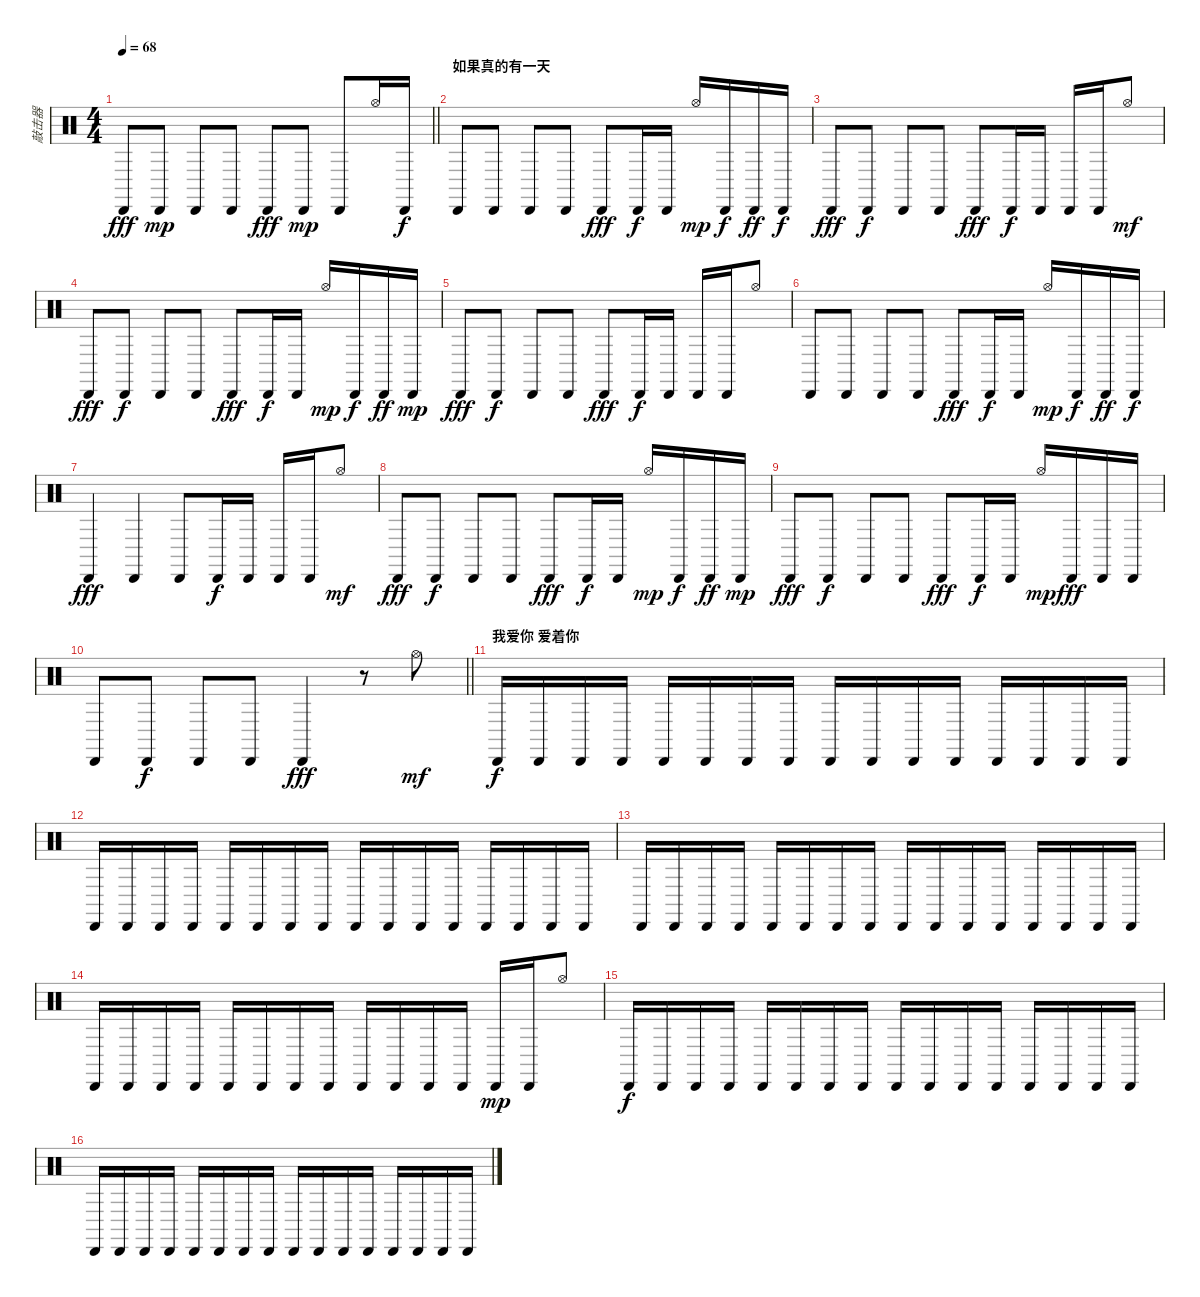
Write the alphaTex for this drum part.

\track ("敲击器" "敲击器") {instrument percussion}
\staff {score}
\articulation defaults
\ts (4 4)
\section ("" "")
\tempo 68
\clef neutral
\barLineRight lightlight
\ks c "Cabasa (hit)".8{dy fff} "Cabasa (hit)".8{dy mp} "Cabasa (hit)".8 "Cabasa (hit)".8 "Cabasa (hit)".8{dy fff} "Cabasa (hit)".8{dy mp} "Cabasa (hit)".8 "Hi-Hat (open)".16 "Cabasa (hit)".16{dy f}
|
\section ("" "如果真的有一天")
"Cabasa (hit)".8 "Cabasa (hit)".8 "Cabasa (hit)".8 "Cabasa (hit)".8 "Cabasa (hit)".8{dy fff} "Cabasa (hit)".16{dy f} "Cabasa (hit)".16 "Hi-Hat (open)".16{dy mp} "Cabasa (hit)".16{dy f} "Cabasa (hit)".16{dy ff} "Cabasa (hit)".16{dy f} |
"Cabasa (hit)".8{dy fff} "Cabasa (hit)".8{dy f} "Cabasa (hit)".8 "Cabasa (hit)".8 "Cabasa (hit)".8{dy fff} "Cabasa (hit)".16{dy f} "Cabasa (hit)".16 "Cabasa (hit)".16 "Cabasa (hit)".16 "Hi-Hat (open)".8{dy mf} |
"Cabasa (hit)".8{dy fff} "Cabasa (hit)".8{dy f} "Cabasa (hit)".8 "Cabasa (hit)".8 "Cabasa (hit)".8{dy fff} "Cabasa (hit)".16{dy f} "Cabasa (hit)".16 "Hi-Hat (open)".16{dy mp} "Cabasa (hit)".16{dy f} "Cabasa (hit)".16{dy ff} "Cabasa (hit)".16{dy mp} |
"Cabasa (hit)".8{dy fff} "Cabasa (hit)".8{dy f} "Cabasa (hit)".8 "Cabasa (hit)".8 "Cabasa (hit)".8{dy fff} "Cabasa (hit)".16{dy f} "Cabasa (hit)".16 "Cabasa (hit)".16 "Cabasa (hit)".16 "Hi-Hat (open)".8 |
"Cabasa (hit)".8 "Cabasa (hit)".8 "Cabasa (hit)".8 "Cabasa (hit)".8 "Cabasa (hit)".8{dy fff} "Cabasa (hit)".16{dy f} "Cabasa (hit)".16 "Hi-Hat (open)".16{dy mp} "Cabasa (hit)".16{dy f} "Cabasa (hit)".16{dy ff} "Cabasa (hit)".16{dy f} |
"Cabasa (hit)".4{dy fff} "Cabasa (hit)".4 "Cabasa (hit)".8 "Cabasa (hit)".16{dy f} "Cabasa (hit)".16 "Cabasa (hit)".16 "Cabasa (hit)".16 "Hi-Hat (open)".8{dy mf} |
"Cabasa (hit)".8{dy fff} "Cabasa (hit)".8{dy f} "Cabasa (hit)".8 "Cabasa (hit)".8 "Cabasa (hit)".8{dy fff} "Cabasa (hit)".16{dy f} "Cabasa (hit)".16 "Hi-Hat (open)".16{dy mp} "Cabasa (hit)".16{dy f} "Cabasa (hit)".16{dy ff} "Cabasa (hit)".16{dy mp} |
"Cabasa (hit)".8{dy fff} "Cabasa (hit)".8{dy f} "Cabasa (hit)".8 "Cabasa (hit)".8 "Cabasa (hit)".8{dy fff} "Cabasa (hit)".16{dy f} "Cabasa (hit)".16 "Hi-Hat (open)".16{dy mp} "Cabasa (hit)".16{dy fff} "Cabasa (hit)".16 "Cabasa (hit)".16 |
\barLineRight lightlight "Cabasa (hit)".8 "Cabasa (hit)".8{dy f} "Cabasa (hit)".8 "Cabasa (hit)".8 "Cabasa (hit)".4{dy fff}
r.8 "Hi-Hat (open)".8{dy mf} |
\section ("" "我爱你 爱着你")
"Cabasa (hit)".16{dy f} "Cabasa (hit)".16 "Cabasa (hit)".16 "Cabasa (hit)".16 "Cabasa (hit)".16 "Cabasa (hit)".16 "Cabasa (hit)".16 "Cabasa (hit)".16 "Cabasa (hit)".16 "Cabasa (hit)".16 "Cabasa (hit)".16 "Cabasa (hit)".16 "Cabasa (hit)".16 "Cabasa (hit)".16 "Cabasa (hit)".16 "Cabasa (hit)".16 |
"Cabasa (hit)".16 "Cabasa (hit)".16 "Cabasa (hit)".16 "Cabasa (hit)".16 "Cabasa (hit)".16 "Cabasa (hit)".16 "Cabasa (hit)".16 "Cabasa (hit)".16 "Cabasa (hit)".16 "Cabasa (hit)".16 "Cabasa (hit)".16 "Cabasa (hit)".16 "Cabasa (hit)".16 "Cabasa (hit)".16 "Cabasa (hit)".16 "Cabasa (hit)".16 |
"Cabasa (hit)".16 "Cabasa (hit)".16 "Cabasa (hit)".16 "Cabasa (hit)".16 "Cabasa (hit)".16 "Cabasa (hit)".16 "Cabasa (hit)".16 "Cabasa (hit)".16 "Cabasa (hit)".16 "Cabasa (hit)".16 "Cabasa (hit)".16 "Cabasa (hit)".16 "Cabasa (hit)".16 "Cabasa (hit)".16 "Cabasa (hit)".16 "Cabasa (hit)".16 |
"Cabasa (hit)".16 "Cabasa (hit)".16 "Cabasa (hit)".16 "Cabasa (hit)".16 "Cabasa (hit)".16 "Cabasa (hit)".16 "Cabasa (hit)".16 "Cabasa (hit)".16 "Cabasa (hit)".16 "Cabasa (hit)".16 "Cabasa (hit)".16 "Cabasa (hit)".16 "Cabasa (hit)".16{dy mp} "Cabasa (hit)".16 "Hi-Hat (open)".8 |
"Cabasa (hit)".16{dy f} "Cabasa (hit)".16 "Cabasa (hit)".16 "Cabasa (hit)".16 "Cabasa (hit)".16 "Cabasa (hit)".16 "Cabasa (hit)".16 "Cabasa (hit)".16 "Cabasa (hit)".16 "Cabasa (hit)".16 "Cabasa (hit)".16 "Cabasa (hit)".16 "Cabasa (hit)".16 "Cabasa (hit)".16 "Cabasa (hit)".16 "Cabasa (hit)".16 |
"Cabasa (hit)".16 "Cabasa (hit)".16 "Cabasa (hit)".16 "Cabasa (hit)".16 "Cabasa (hit)".16 "Cabasa (hit)".16 "Cabasa (hit)".16 "Cabasa (hit)".16 "Cabasa (hit)".16 "Cabasa (hit)".16 "Cabasa (hit)".16 "Cabasa (hit)".16 "Cabasa (hit)".16 "Cabasa (hit)".16 "Cabasa (hit)".16 "Cabasa (hit)".16
